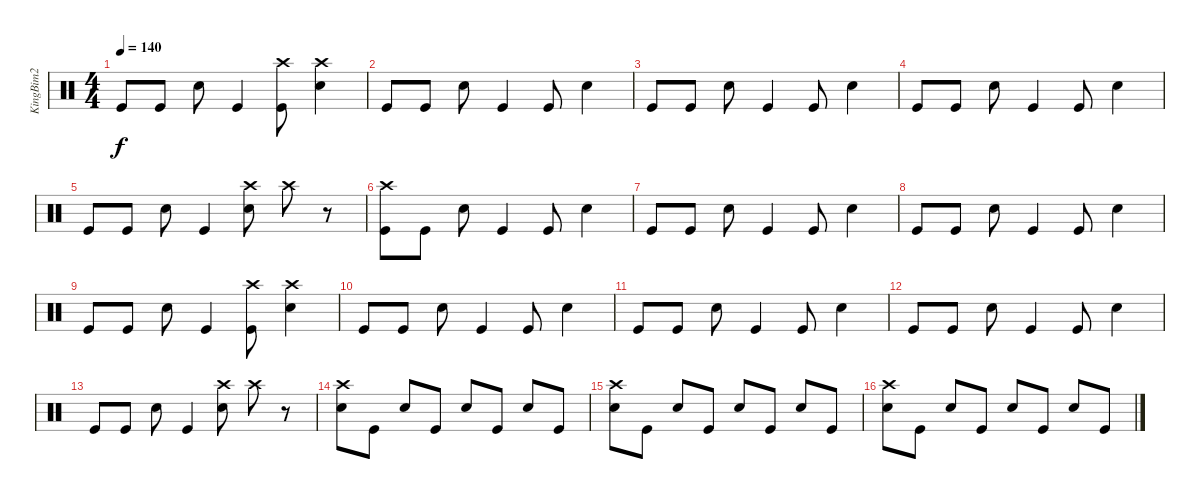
\track ("KingBim2" "KingBim2") {instrument percussion}
\staff {score}
\articulation defaults
\ts (4 4)
\tempo 140
\clef neutral
\ks c "Kick (hit)".8{dy f} "Kick (hit)".8 "Snare (hit) 2".8 "Kick (hit)".4
("Crash high (hit)" "Kick (hit)").8 ("Crash high (hit)" "Snare (hit) 2").4 |
"Kick (hit)".8 "Kick (hit)".8 "Snare (hit) 2".8 "Kick (hit)".4 "Kick (hit)".8 "Snare (hit) 2".4 |
"Kick (hit)".8 "Kick (hit)".8 "Snare (hit) 2".8 "Kick (hit)".4 "Kick (hit)".8 "Snare (hit) 2".4 |
"Kick (hit)".8 "Kick (hit)".8 "Snare (hit) 2".8 "Kick (hit)".4 "Kick (hit)".8 "Snare (hit) 2".4 |
"Kick (hit)".8 "Kick (hit)".8 "Snare (hit) 2".8 "Kick (hit)".4 ("Crash high (hit)" "Snare (hit) 2").8 "Crash high (hit)".8 r.8 |
("Crash high (hit)" "Kick (hit)").8 "Kick (hit)".8 "Snare (hit) 2".8 "Kick (hit)".4 "Kick (hit)".8 "Snare (hit) 2".4 |
"Kick (hit)".8 "Kick (hit)".8 "Snare (hit) 2".8 "Kick (hit)".4 "Kick (hit)".8 "Snare (hit) 2".4 |
"Kick (hit)".8 "Kick (hit)".8 "Snare (hit) 2".8 "Kick (hit)".4 "Kick (hit)".8 "Snare (hit) 2".4 |
"Kick (hit)".8 "Kick (hit)".8 "Snare (hit) 2".8 "Kick (hit)".4 ("Crash high (hit)" "Kick (hit)").8 ("Crash high (hit)" "Snare (hit) 2").4 |
"Kick (hit)".8 "Kick (hit)".8 "Snare (hit) 2".8 "Kick (hit)".4 "Kick (hit)".8 "Snare (hit) 2".4 |
"Kick (hit)".8 "Kick (hit)".8 "Snare (hit) 2".8 "Kick (hit)".4 "Kick (hit)".8 "Snare (hit) 2".4 |
"Kick (hit)".8 "Kick (hit)".8 "Snare (hit) 2".8 "Kick (hit)".4 "Kick (hit)".8 "Snare (hit) 2".4 |
"Kick (hit)".8 "Kick (hit)".8 "Snare (hit) 2".8 "Kick (hit)".4 ("Crash high (hit)" "Snare (hit) 2").8 "Crash high (hit)".8 r.8 |
("Crash high (hit)" "Snare (hit) 2").8 "Kick (hit)".8 "Snare (hit) 2".8 "Kick (hit)".8 "Snare (hit) 2".8 "Kick (hit)".8 "Snare (hit) 2".8 "Kick (hit)".8 |
("Crash high (hit)" "Snare (hit) 2").8 "Kick (hit)".8 "Snare (hit) 2".8 "Kick (hit)".8 "Snare (hit) 2".8 "Kick (hit)".8 "Snare (hit) 2".8 "Kick (hit)".8 |
("Crash high (hit)" "Snare (hit) 2").8 "Kick (hit)".8 "Snare (hit) 2".8 "Kick (hit)".8 "Snare (hit) 2".8 "Kick (hit)".8 "Snare (hit) 2".8 "Kick (hit)".8
